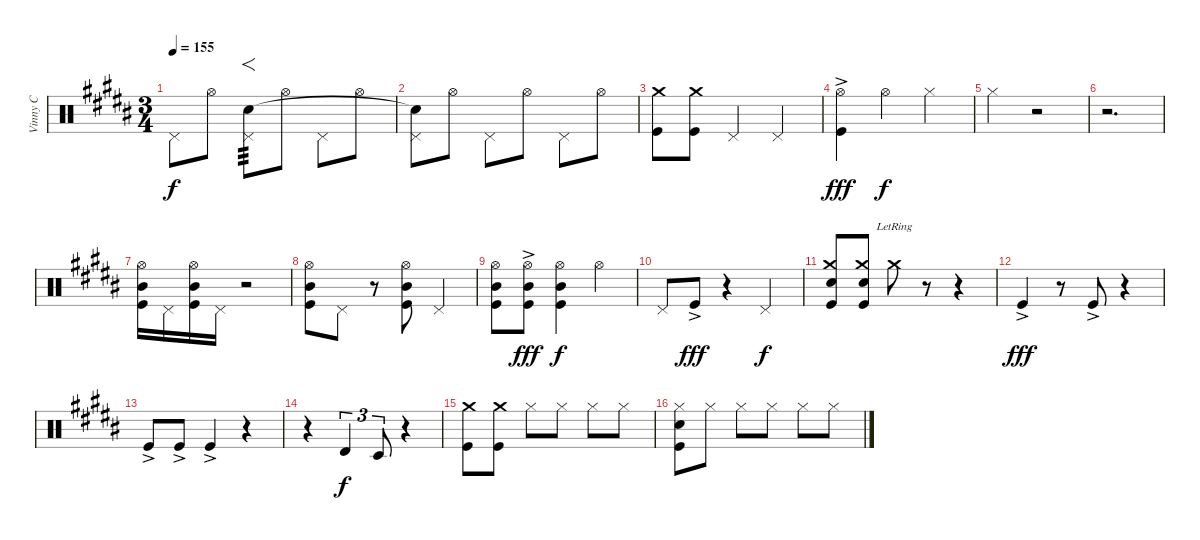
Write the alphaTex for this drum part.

\track ("Vinny C" "Vinny C") {instrument percussion}
\staff {score}
\articulation defaults
\ts (3 4)
\tempo 155
\clef neutral
\ks b "Pedal Hi-Hat (hit)".8{dy f} "Hi-Hat (open)".8
("Pedal Hi-Hat (hit)" "Electric Snare (hit)").8{f tp 3} "Hi-Hat (open)".8 "Pedal Hi-Hat (hit)".8 "Hi-Hat (open)".8 |
("Pedal Hi-Hat (hit)" "Electric Snare (hit)"{t}).8 "Hi-Hat (open)".8 "Pedal Hi-Hat (hit)".8 "Hi-Hat (open)".8 "Pedal Hi-Hat (hit)".8 "Hi-Hat (open)".8 |
("Crash medium (hit)" "Kick (hit)").8 ("Crash medium (hit)" "Kick (hit)").8 "Pedal Hi-Hat (hit)".4 "Pedal Hi-Hat (hit)".4 |
("Hi-Hat (open)" "Kick (hit)"{ac}).4{dy fff} "Hi-Hat (open)".4{dy f} "Hi-Hat (closed)".4 |
"Hi-Hat (closed)".4 r.2 |
r.2{d} |
("Hi-Hat (open)" "Mid Tom (hit)" "Kick (hit)").16 "Pedal Hi-Hat (hit)".16 ("Hi-Hat (open)" "Mid Tom (hit)" "Kick (hit)").16 "Pedal Hi-Hat (hit)".16 r.2 |
("Hi-Hat (open)" "Mid Tom (hit)" "Kick (hit)").8 "Pedal Hi-Hat (hit)".8 r.8 ("Hi-Hat (open)" "Mid Tom (hit)" "Kick (hit)").8 "Pedal Hi-Hat (hit)".4 |
("Hi-Hat (open)" "Mid Tom (hit)" "Kick (hit)").8 ("Hi-Hat (open)" "Mid Tom (hit)" "Kick (hit)"{ac}).8{dy fff} ("Hi-Hat (open)" "Mid Tom (hit)" "Kick (hit)").4{dy f} "Hi-Hat (open)".4 |
"Pedal Hi-Hat (hit)".8 "Kick (hit)"{ac}.8{dy fff} r.4 "Pedal Hi-Hat (hit)".4{dy f} |
("Crash medium (hit)" "Electric Snare (hit)" "Kick (hit)").8 ("Crash medium (hit)" "Electric Snare (hit)" "Kick (hit)").8 "Crash medium (hit)"{lr}.8 r.8 r.4 |
"Kick (hit)"{ac}.4{dy fff} r.8 "Kick (hit)"{ac}.8 r.4 |
"Kick (hit)"{ac}.8 "Kick (hit)"{ac}.8 "Kick (hit)"{ac}.4 r.4 |
r.4 "Timbale high (hit)".4{tu (3 2) dy f} "Timbale low (hit)".8{tu (3 2)} r.4 |
("Crash medium (hit)" "Kick (hit)").8 ("Crash medium (hit)" "Kick (hit)").8 "Hi-Hat (closed)".8 "Hi-Hat (closed)".8 "Hi-Hat (closed)".8 "Hi-Hat (closed)".8 |
("Hi-Hat (closed)" "Electric Snare (hit)" "Kick (hit)").8 "Hi-Hat (closed)".8 "Hi-Hat (closed)".8 "Hi-Hat (closed)".8 "Hi-Hat (closed)".8 "Hi-Hat (closed)".8
